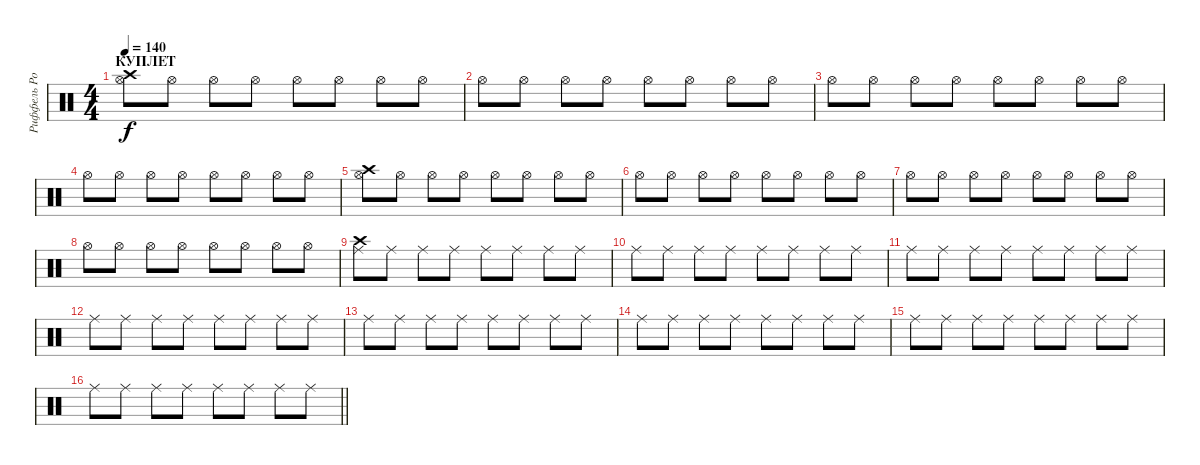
\track ("Риффель Роман (хэты)" "Риффель Ро") {instrument percussion}
\staff {score}
\articulation defaults
\ts (4 4)
\section ("" "КУПЛЕТ ")
\tempo 140
\clef neutral
\ks c
("Hi-Hat (open)" "Crash high (hit)").8{dy f} "Hi-Hat (open)".8 "Hi-Hat (open)".8 "Hi-Hat (open)".8 "Hi-Hat (open)".8 "Hi-Hat (open)".8 "Hi-Hat (open)".8 "Hi-Hat (open)".8 |
"Hi-Hat (open)".8 "Hi-Hat (open)".8 "Hi-Hat (open)".8 "Hi-Hat (open)".8 "Hi-Hat (open)".8 "Hi-Hat (open)".8 "Hi-Hat (open)".8 "Hi-Hat (open)".8 |
"Hi-Hat (open)".8 "Hi-Hat (open)".8 "Hi-Hat (open)".8 "Hi-Hat (open)".8 "Hi-Hat (open)".8 "Hi-Hat (open)".8 "Hi-Hat (open)".8 "Hi-Hat (open)".8 |
"Hi-Hat (open)".8 "Hi-Hat (open)".8 "Hi-Hat (open)".8 "Hi-Hat (open)".8 "Hi-Hat (open)".8 "Hi-Hat (open)".8 "Hi-Hat (open)".8 "Hi-Hat (open)".8 |
("Hi-Hat (open)" "Crash high (hit)").8 "Hi-Hat (open)".8 "Hi-Hat (open)".8 "Hi-Hat (open)".8 "Hi-Hat (open)".8 "Hi-Hat (open)".8 "Hi-Hat (open)".8 "Hi-Hat (open)".8 |
"Hi-Hat (open)".8 "Hi-Hat (open)".8 "Hi-Hat (open)".8 "Hi-Hat (open)".8 "Hi-Hat (open)".8 "Hi-Hat (open)".8 "Hi-Hat (open)".8 "Hi-Hat (open)".8 |
"Hi-Hat (open)".8 "Hi-Hat (open)".8 "Hi-Hat (open)".8 "Hi-Hat (open)".8 "Hi-Hat (open)".8 "Hi-Hat (open)".8 "Hi-Hat (open)".8 "Hi-Hat (open)".8 |
"Hi-Hat (open)".8 "Hi-Hat (open)".8 "Hi-Hat (open)".8 "Hi-Hat (open)".8 "Hi-Hat (open)".8 "Hi-Hat (open)".8 "Hi-Hat (open)".8 "Hi-Hat (open)".8 |
("Ride (middle)" "Crash high (hit)").8 "Ride (middle)".8 "Ride (middle)".8 "Ride (middle)".8 "Ride (middle)".8 "Ride (middle)".8 "Ride (middle)".8 "Ride (middle)".8 |
"Ride (middle)".8 "Ride (middle)".8 "Ride (middle)".8 "Ride (middle)".8 "Ride (middle)".8 "Ride (middle)".8 "Ride (middle)".8 "Ride (middle)".8 |
"Ride (middle)".8 "Ride (middle)".8 "Ride (middle)".8 "Ride (middle)".8 "Ride (middle)".8 "Ride (middle)".8 "Ride (middle)".8 "Ride (middle)".8 |
"Ride (middle)".8 "Ride (middle)".8 "Ride (middle)".8 "Ride (middle)".8 "Ride (middle)".8 "Ride (middle)".8 "Ride (middle)".8 "Ride (middle)".8 |
"Ride (middle)".8 "Ride (middle)".8 "Ride (middle)".8 "Ride (middle)".8 "Ride (middle)".8 "Ride (middle)".8 "Ride (middle)".8 "Ride (middle)".8 |
"Ride (middle)".8 "Ride (middle)".8 "Ride (middle)".8 "Ride (middle)".8 "Ride (middle)".8 "Ride (middle)".8 "Ride (middle)".8 "Ride (middle)".8 |
"Ride (middle)".8 "Ride (middle)".8 "Ride (middle)".8 "Ride (middle)".8 "Ride (middle)".8 "Ride (middle)".8 "Ride (middle)".8 "Ride (middle)".8 |
\barLineRight lightlight "Ride (middle)".8 "Ride (middle)".8 "Ride (middle)".8 "Ride (middle)".8 "Ride (middle)".8 "Ride (middle)".8 "Ride (middle)".8 "Ride (middle)".8
